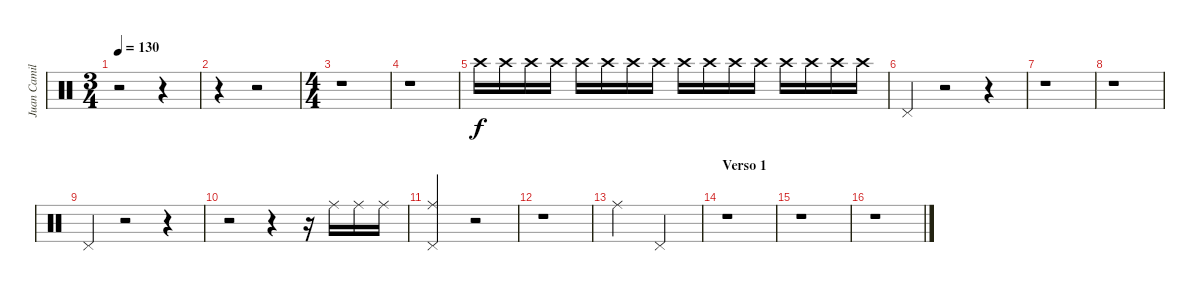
\track ("Juan Camilo" "Juan Camil") {instrument percussion}
\staff {score}
\articulation defaults
\ts (3 4)
\tempo 130
\clef neutral
\ks c
r.2{dy f} r.4 |
r.4 r.2 |
\ts (4 4)
r.1 |
r.1{volume 0} |
"Crash high (hit)".16{volume 10} "Crash high (hit)".16 "Crash high (hit)".16 "Crash high (hit)".16 "Crash high (hit)".16 "Crash high (hit)".16 "Crash high (hit)".16 "Crash high (hit)".16 "Crash high (hit)".16 "Crash high (hit)".16 "Crash high (hit)".16 "Crash high (hit)".16 "Crash high (hit)".16 "Crash high (hit)".16 "Crash high (hit)".16 "Crash high (hit)".16 |
"Pedal Hi-Hat (hit)".4 r.2 r.4 |
r.1 |
r.1 |
"Pedal Hi-Hat (hit)".4 r.2 r.4 |
r.2 r.4 r.16 "Ride (middle)".16 "Ride (middle)".16 "Ride (middle)".16 |
("Pedal Hi-Hat (hit)" "Ride (middle)").2 r.2 |
r.1 |
"Ride (middle)".2 "Pedal Hi-Hat (hit)".2 |
\section ("" "Verso 1")
r.1 |
r.1 |
r.1
